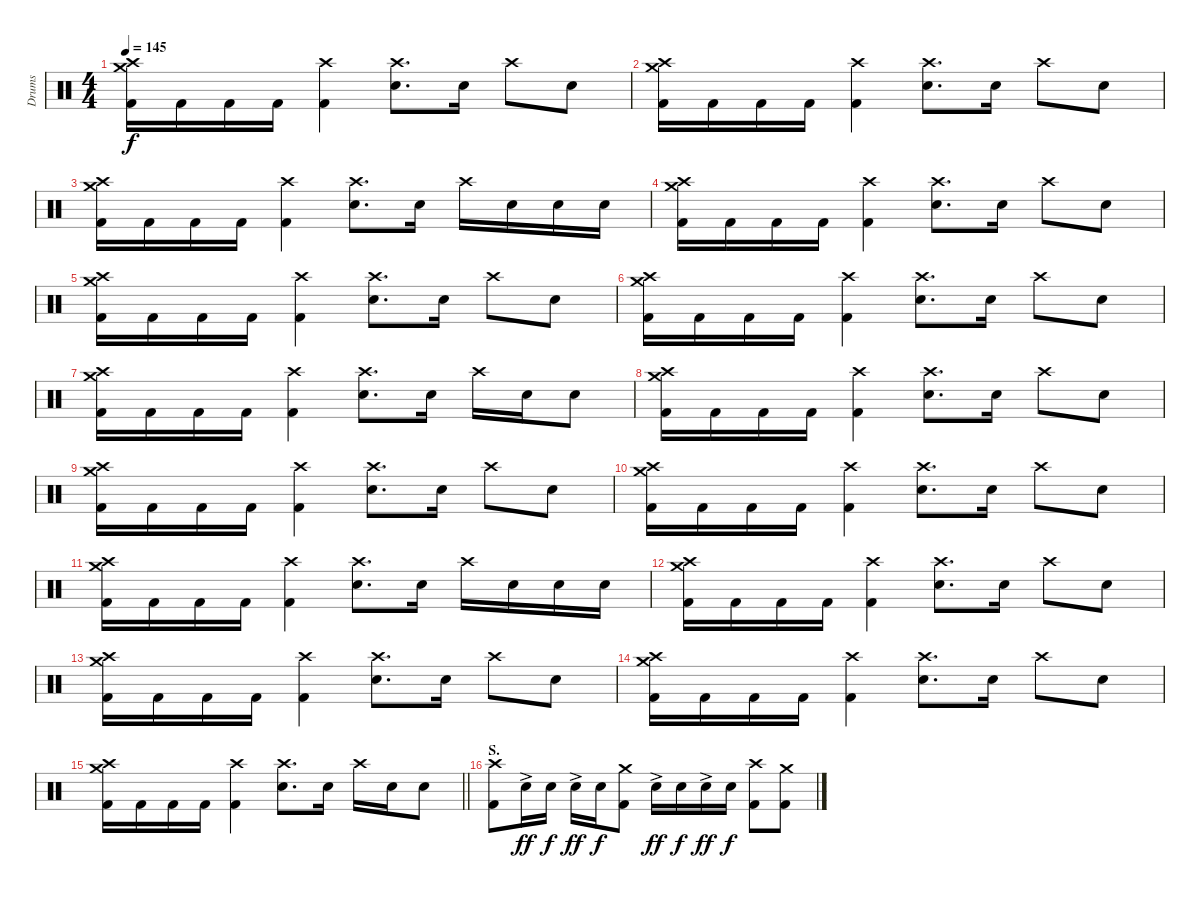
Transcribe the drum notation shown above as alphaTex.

\track ("Drums" "Drums") {instrument percussion}
\staff {score}
\articulation defaults
\ts (4 4)
\tempo 145
\clef neutral
\ks c
("Crash medium (hit)" "Crash high (hit)" "Kick (hit) 2").16{dy f} "Kick (hit) 2".16 "Kick (hit) 2".16 "Kick (hit) 2".16 ("Crash high (hit)" "Kick (hit) 2").4 ("Crash high (hit)" "Electric Snare (hit)").8{d} "Electric Snare (hit)".16 "Crash high (hit)".8 "Electric Snare (hit)".8 |
("Crash medium (hit)" "Crash high (hit)" "Kick (hit) 2").16 "Kick (hit) 2".16 "Kick (hit) 2".16 "Kick (hit) 2".16 ("Crash high (hit)" "Kick (hit) 2").4 ("Crash high (hit)" "Electric Snare (hit)").8{d} "Electric Snare (hit)".16 "Crash high (hit)".8 "Electric Snare (hit)".8 |
("Crash medium (hit)" "Crash high (hit)" "Kick (hit) 2").16 "Kick (hit) 2".16 "Kick (hit) 2".16 "Kick (hit) 2".16 ("Crash high (hit)" "Kick (hit) 2").4 ("Crash high (hit)" "Electric Snare (hit)").8{d} "Electric Snare (hit)".16 "Crash high (hit)".16 "Electric Snare (hit)".16 "Electric Snare (hit)".16 "Electric Snare (hit)".16 |
("Crash medium (hit)" "Crash high (hit)" "Kick (hit) 2").16 "Kick (hit) 2".16 "Kick (hit) 2".16 "Kick (hit) 2".16 ("Crash high (hit)" "Kick (hit) 2").4 ("Crash high (hit)" "Electric Snare (hit)").8{d} "Electric Snare (hit)".16 "Crash high (hit)".8 "Electric Snare (hit)".8 |
("Crash medium (hit)" "Crash high (hit)" "Kick (hit) 2").16 "Kick (hit) 2".16 "Kick (hit) 2".16 "Kick (hit) 2".16 ("Crash high (hit)" "Kick (hit) 2").4 ("Crash high (hit)" "Electric Snare (hit)").8{d} "Electric Snare (hit)".16 "Crash high (hit)".8 "Electric Snare (hit)".8 |
("Crash medium (hit)" "Crash high (hit)" "Kick (hit) 2").16 "Kick (hit) 2".16 "Kick (hit) 2".16 "Kick (hit) 2".16 ("Crash high (hit)" "Kick (hit) 2").4 ("Crash high (hit)" "Electric Snare (hit)").8{d} "Electric Snare (hit)".16 "Crash high (hit)".8 "Electric Snare (hit)".8 |
("Crash medium (hit)" "Crash high (hit)" "Kick (hit) 2").16 "Kick (hit) 2".16 "Kick (hit) 2".16 "Kick (hit) 2".16 ("Crash high (hit)" "Kick (hit) 2").4 ("Crash high (hit)" "Electric Snare (hit)").8{d} "Electric Snare (hit)".16 "Crash high (hit)".16 "Electric Snare (hit)".16 "Electric Snare (hit)".8 |
("Crash medium (hit)" "Crash high (hit)" "Kick (hit) 2").16 "Kick (hit) 2".16 "Kick (hit) 2".16 "Kick (hit) 2".16 ("Crash high (hit)" "Kick (hit) 2").4 ("Crash high (hit)" "Electric Snare (hit)").8{d} "Electric Snare (hit)".16 "Crash high (hit)".8 "Electric Snare (hit)".8 |
("Crash medium (hit)" "Crash high (hit)" "Kick (hit) 2").16 "Kick (hit) 2".16 "Kick (hit) 2".16 "Kick (hit) 2".16 ("Crash high (hit)" "Kick (hit) 2").4 ("Crash high (hit)" "Electric Snare (hit)").8{d} "Electric Snare (hit)".16 "Crash high (hit)".8 "Electric Snare (hit)".8 |
("Crash medium (hit)" "Crash high (hit)" "Kick (hit) 2").16 "Kick (hit) 2".16 "Kick (hit) 2".16 "Kick (hit) 2".16 ("Crash high (hit)" "Kick (hit) 2").4 ("Crash high (hit)" "Electric Snare (hit)").8{d} "Electric Snare (hit)".16 "Crash high (hit)".8 "Electric Snare (hit)".8 |
("Crash medium (hit)" "Crash high (hit)" "Kick (hit) 2").16 "Kick (hit) 2".16 "Kick (hit) 2".16 "Kick (hit) 2".16 ("Crash high (hit)" "Kick (hit) 2").4 ("Crash high (hit)" "Electric Snare (hit)").8{d} "Electric Snare (hit)".16 "Crash high (hit)".16 "Electric Snare (hit)".16 "Electric Snare (hit)".16 "Electric Snare (hit)".16 |
("Crash medium (hit)" "Crash high (hit)" "Kick (hit) 2").16 "Kick (hit) 2".16 "Kick (hit) 2".16 "Kick (hit) 2".16 ("Crash high (hit)" "Kick (hit) 2").4 ("Crash high (hit)" "Electric Snare (hit)").8{d} "Electric Snare (hit)".16 "Crash high (hit)".8 "Electric Snare (hit)".8 |
("Crash medium (hit)" "Crash high (hit)" "Kick (hit) 2").16 "Kick (hit) 2".16 "Kick (hit) 2".16 "Kick (hit) 2".16 ("Crash high (hit)" "Kick (hit) 2").4 ("Crash high (hit)" "Electric Snare (hit)").8{d} "Electric Snare (hit)".16 "Crash high (hit)".8 "Electric Snare (hit)".8 |
("Crash medium (hit)" "Crash high (hit)" "Kick (hit) 2").16 "Kick (hit) 2".16 "Kick (hit) 2".16 "Kick (hit) 2".16 ("Crash high (hit)" "Kick (hit) 2").4 ("Crash high (hit)" "Electric Snare (hit)").8{d} "Electric Snare (hit)".16 "Crash high (hit)".8 "Electric Snare (hit)".8 |
\barLineRight lightlight
("Crash medium (hit)" "Crash high (hit)" "Kick (hit) 2").16 "Kick (hit) 2".16 "Kick (hit) 2".16 "Kick (hit) 2".16 ("Crash high (hit)" "Kick (hit) 2").4 ("Crash high (hit)" "Electric Snare (hit)").8{d} "Electric Snare (hit)".16 "Crash high (hit)".16 "Electric Snare (hit)".16 "Electric Snare (hit)".8 |
\section ("" "S.")
("Crash high (hit)" "Kick (hit) 2").8 "Electric Snare (hit)"{ac}.16{dy ff} "Electric Snare (hit)".16{dy f} "Electric Snare (hit)"{ac}.16{dy ff} "Electric Snare (hit)".16{dy f} ("Crash medium (hit)" "Kick (hit) 2").8 "Electric Snare (hit)"{ac}.16{dy ff} "Electric Snare (hit)".16{dy f} "Electric Snare (hit)"{ac}.16{dy ff} "Electric Snare (hit)".16{dy f} ("Crash high (hit)" "Kick (hit) 2").8 ("Crash medium (hit)" "Kick (hit) 2").8
